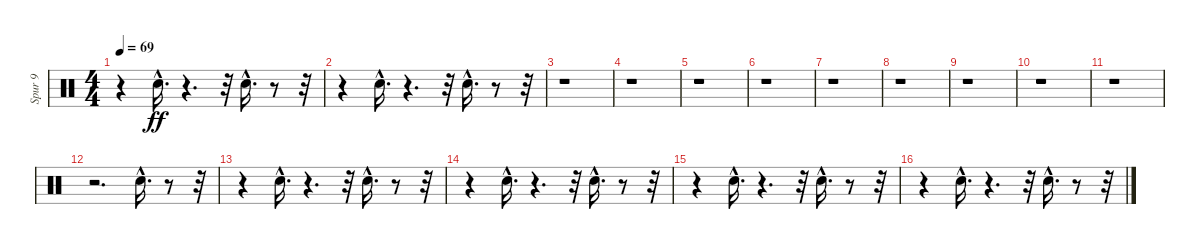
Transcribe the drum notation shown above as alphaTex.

\track ("Spur 9" "Spur 9") {instrument percussion}
\staff {score}
\articulation defaults
\ts (4 4)
\tempo 69
\clef neutral
\ks c
r.4{dy ff} "Electric Snare (hit)"{hac}.16{d} r.4{d} r.32 "Electric Snare (hit)"{hac}.16{d} r.8 r.32 |
r.4 "Electric Snare (hit)"{hac}.16{d} r.4{d} r.32 "Electric Snare (hit)"{hac}.16{d} r.8 r.32 |
r.1 |
r.1 |
r.1 |
r.1 |
r.1 |
r.1 |
r.1 |
r.1 |
r.1 |
r.2{d} "Electric Snare (hit)"{hac}.16{d} r.8 r.32 |
r.4 "Electric Snare (hit)"{hac}.16{d} r.4{d} r.32 "Electric Snare (hit)"{hac}.16{d} r.8 r.32 |
r.4 "Electric Snare (hit)"{hac}.16{d} r.4{d} r.32 "Electric Snare (hit)"{hac}.16{d} r.8 r.32 |
r.4 "Electric Snare (hit)"{hac}.16{d} r.4{d} r.32 "Electric Snare (hit)"{hac}.16{d} r.8 r.32 |
r.4 "Electric Snare (hit)"{hac}.16{d} r.4{d} r.32 "Electric Snare (hit)"{hac}.16{d} r.8 r.32
